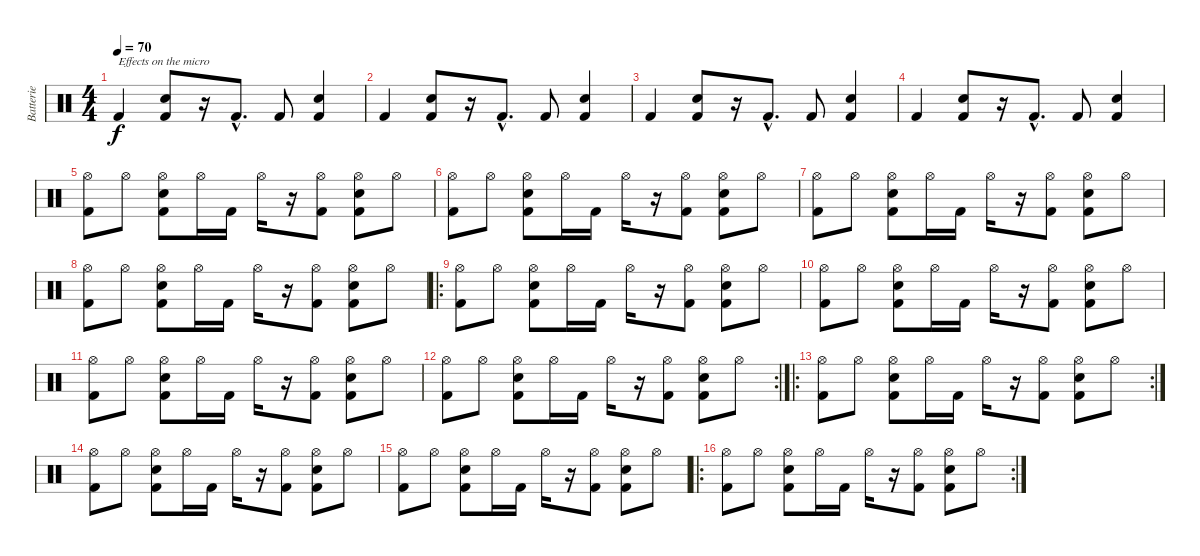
\track ("Batterie" "Batterie") {instrument percussion}
\staff {score}
\articulation defaults
\ts (4 4)
\tempo 70
\clef neutral
\ks c "Kick (hit) 2".4{txt "Effects on the micro" dy f}
("Electric Snare (hit)" "Kick (hit) 2").8 r.16 "Kick (hit) 2"{hac}.8{d} "Kick (hit) 2".8 ("Electric Snare (hit)" "Kick (hit) 2").4 |
"Kick (hit) 2".4 ("Electric Snare (hit)" "Kick (hit) 2").8 r.16 "Kick (hit) 2"{hac}.8{d} "Kick (hit) 2".8 ("Electric Snare (hit)" "Kick (hit) 2").4 |
"Kick (hit) 2".4 ("Electric Snare (hit)" "Kick (hit) 2").8 r.16 "Kick (hit) 2"{hac}.8{d} "Kick (hit) 2".8 ("Electric Snare (hit)" "Kick (hit) 2").4 |
"Kick (hit) 2".4 ("Electric Snare (hit)" "Kick (hit) 2").8 r.16 "Kick (hit) 2"{hac}.8{d} "Kick (hit) 2".8 ("Electric Snare (hit)" "Kick (hit) 2").4 |
("Hi-Hat (open)" "Kick (hit) 2").8 "Hi-Hat (open)".8 ("Hi-Hat (open)" "Electric Snare (hit)" "Kick (hit) 2").8 "Hi-Hat (open)".16 "Kick (hit) 2".16 "Hi-Hat (open)".16 r.16 ("Hi-Hat (open)" "Kick (hit) 2").8 ("Hi-Hat (open)" "Electric Snare (hit)" "Kick (hit) 2").8 "Hi-Hat (open)".8 |
("Hi-Hat (open)" "Kick (hit) 2").8 "Hi-Hat (open)".8 ("Hi-Hat (open)" "Electric Snare (hit)" "Kick (hit) 2").8 "Hi-Hat (open)".16 "Kick (hit) 2".16 "Hi-Hat (open)".16 r.16 ("Hi-Hat (open)" "Kick (hit) 2").8 ("Hi-Hat (open)" "Electric Snare (hit)" "Kick (hit) 2").8 "Hi-Hat (open)".8 |
("Hi-Hat (open)" "Kick (hit) 2").8 "Hi-Hat (open)".8 ("Hi-Hat (open)" "Electric Snare (hit)" "Kick (hit) 2").8 "Hi-Hat (open)".16 "Kick (hit) 2".16 "Hi-Hat (open)".16 r.16 ("Hi-Hat (open)" "Kick (hit) 2").8 ("Hi-Hat (open)" "Electric Snare (hit)" "Kick (hit) 2").8 "Hi-Hat (open)".8 |
("Hi-Hat (open)" "Kick (hit) 2").8 "Hi-Hat (open)".8 ("Hi-Hat (open)" "Electric Snare (hit)" "Kick (hit) 2").8 "Hi-Hat (open)".16 "Kick (hit) 2".16 "Hi-Hat (open)".16 r.16 ("Hi-Hat (open)" "Kick (hit) 2").8 ("Hi-Hat (open)" "Electric Snare (hit)" "Kick (hit) 2").8 "Hi-Hat (open)".8 |
\ro
("Hi-Hat (open)" "Kick (hit) 2").8 "Hi-Hat (open)".8 ("Hi-Hat (open)" "Electric Snare (hit)" "Kick (hit) 2").8 "Hi-Hat (open)".16 "Kick (hit) 2".16 "Hi-Hat (open)".16 r.16 ("Hi-Hat (open)" "Kick (hit) 2").8 ("Hi-Hat (open)" "Electric Snare (hit)" "Kick (hit) 2").8 "Hi-Hat (open)".8 |
("Hi-Hat (open)" "Kick (hit) 2").8 "Hi-Hat (open)".8 ("Hi-Hat (open)" "Electric Snare (hit)" "Kick (hit) 2").8 "Hi-Hat (open)".16 "Kick (hit) 2".16 "Hi-Hat (open)".16 r.16 ("Hi-Hat (open)" "Kick (hit) 2").8 ("Hi-Hat (open)" "Electric Snare (hit)" "Kick (hit) 2").8 "Hi-Hat (open)".8 |
("Hi-Hat (open)" "Kick (hit) 2").8 "Hi-Hat (open)".8 ("Hi-Hat (open)" "Electric Snare (hit)" "Kick (hit) 2").8 "Hi-Hat (open)".16 "Kick (hit) 2".16 "Hi-Hat (open)".16 r.16 ("Hi-Hat (open)" "Kick (hit) 2").8 ("Hi-Hat (open)" "Electric Snare (hit)" "Kick (hit) 2").8 "Hi-Hat (open)".8 |
\rc 2
("Hi-Hat (open)" "Kick (hit) 2").8 "Hi-Hat (open)".8 ("Hi-Hat (open)" "Electric Snare (hit)" "Kick (hit) 2").8 "Hi-Hat (open)".16 "Kick (hit) 2".16 "Hi-Hat (open)".16 r.16 ("Hi-Hat (open)" "Kick (hit) 2").8 ("Hi-Hat (open)" "Electric Snare (hit)" "Kick (hit) 2").8 "Hi-Hat (open)".8 |
\ro
\rc 2
("Hi-Hat (open)" "Kick (hit) 2").8 "Hi-Hat (open)".8 ("Hi-Hat (open)" "Electric Snare (hit)" "Kick (hit) 2").8 "Hi-Hat (open)".16 "Kick (hit) 2".16 "Hi-Hat (open)".16 r.16 ("Hi-Hat (open)" "Kick (hit) 2").8 ("Hi-Hat (open)" "Electric Snare (hit)" "Kick (hit) 2").8 "Hi-Hat (open)".8 |
("Hi-Hat (open)" "Kick (hit) 2").8 "Hi-Hat (open)".8 ("Hi-Hat (open)" "Electric Snare (hit)" "Kick (hit) 2").8 "Hi-Hat (open)".16 "Kick (hit) 2".16 "Hi-Hat (open)".16 r.16 ("Hi-Hat (open)" "Kick (hit) 2").8 ("Hi-Hat (open)" "Electric Snare (hit)" "Kick (hit) 2").8 "Hi-Hat (open)".8 |
("Hi-Hat (open)" "Kick (hit) 2").8 "Hi-Hat (open)".8 ("Hi-Hat (open)" "Electric Snare (hit)" "Kick (hit) 2").8 "Hi-Hat (open)".16 "Kick (hit) 2".16 "Hi-Hat (open)".16 r.16 ("Hi-Hat (open)" "Kick (hit) 2").8 ("Hi-Hat (open)" "Electric Snare (hit)" "Kick (hit) 2").8 "Hi-Hat (open)".8 |
\ro
\rc 2
("Hi-Hat (open)" "Kick (hit) 2").8 "Hi-Hat (open)".8 ("Hi-Hat (open)" "Electric Snare (hit)" "Kick (hit) 2").8 "Hi-Hat (open)".16 "Kick (hit) 2".16 "Hi-Hat (open)".16 r.16 ("Hi-Hat (open)" "Kick (hit) 2").8 ("Hi-Hat (open)" "Electric Snare (hit)" "Kick (hit) 2").8 "Hi-Hat (open)".8
